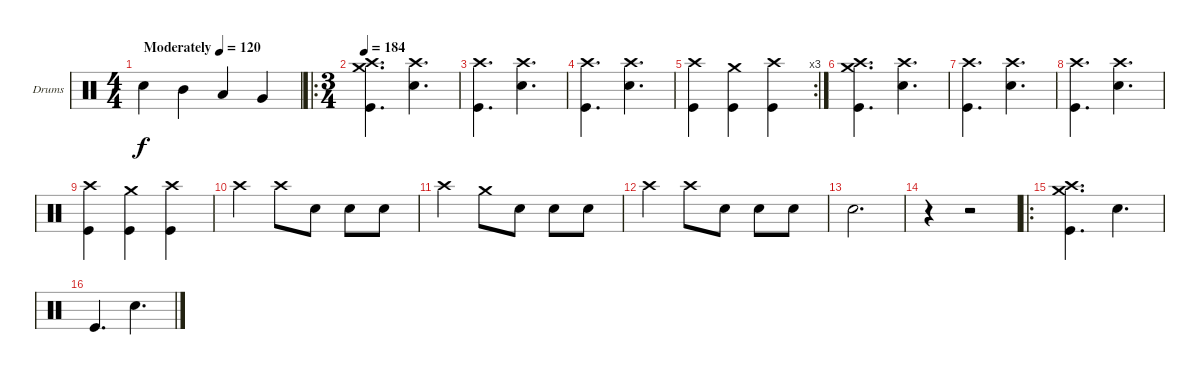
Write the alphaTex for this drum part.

\bracketExtendMode groupsimilarinstruments
\firstSystemTrackNameOrientation horizontal
\otherSystemsTrackNameOrientation horizontal
\track ("Drumkit" "Drums") {instrument percussion}
\staff {score}
\articulation defaults
\ts (4 4)
\beaming (8 2 2 2 2)
\tempo (120 "Moderately")
\clef neutral
\ks c "Snare (hit) 2".4{dy f} "Mid Tom (hit)".4 "Low Tom (hit)".4 "Very Low Tom (hit)".4
|
\ro
\ts (3 4)
\beaming (8 2 2 2)
\tempo 184
("Crash high (hit)" "Crash medium (hit)" "Kick (hit)").4{d} ("Crash high (hit)" "Snare (hit) 2").4{d} |
("Crash high (hit)" "Kick (hit)").4{d} ("Crash high (hit)" "Snare (hit) 2").4{d} |
("Crash high (hit)" "Kick (hit)").4{d} ("Crash high (hit)" "Snare (hit) 2").4{d} |
\rc 3
("Crash high (hit)" "Kick (hit)").4 ("Crash medium (hit)" "Kick (hit)").4 ("Crash high (hit)" "Kick (hit)").4 |
("Crash high (hit)" "Crash medium (hit)" "Kick (hit)").4{d} ("Crash high (hit)" "Snare (hit) 2").4{d} |
("Crash high (hit)" "Kick (hit)").4{d} ("Crash high (hit)" "Snare (hit) 2").4{d} |
("Crash high (hit)" "Kick (hit)").4{d} ("Crash high (hit)" "Snare (hit) 2").4{d} |
("Crash high (hit)" "Kick (hit)").4 ("Crash medium (hit)" "Kick (hit)").4 ("Crash high (hit)" "Kick (hit)").4 |
"Crash high (hit)".4 "Crash high (hit)".8 "Snare (hit) 2".8 "Snare (hit) 2".8 "Snare (hit) 2".8 |
"Crash high (hit)".4 "Crash medium (hit)".8 "Snare (hit) 2".8 "Snare (hit) 2".8 "Snare (hit) 2".8 |
"Crash high (hit)".4 "Crash high (hit)".8 "Snare (hit) 2".8 "Snare (hit) 2".8 "Snare (hit) 2".8 |
"Snare (hit) 2".2{d} |
r.4 r.2 |
\ro
("Crash high (hit)" "Crash medium (hit)" "Kick (hit)").4{d} "Snare (hit) 2".4{d} |
"Kick (hit)".4{d} "Snare (hit) 2".4{d}
